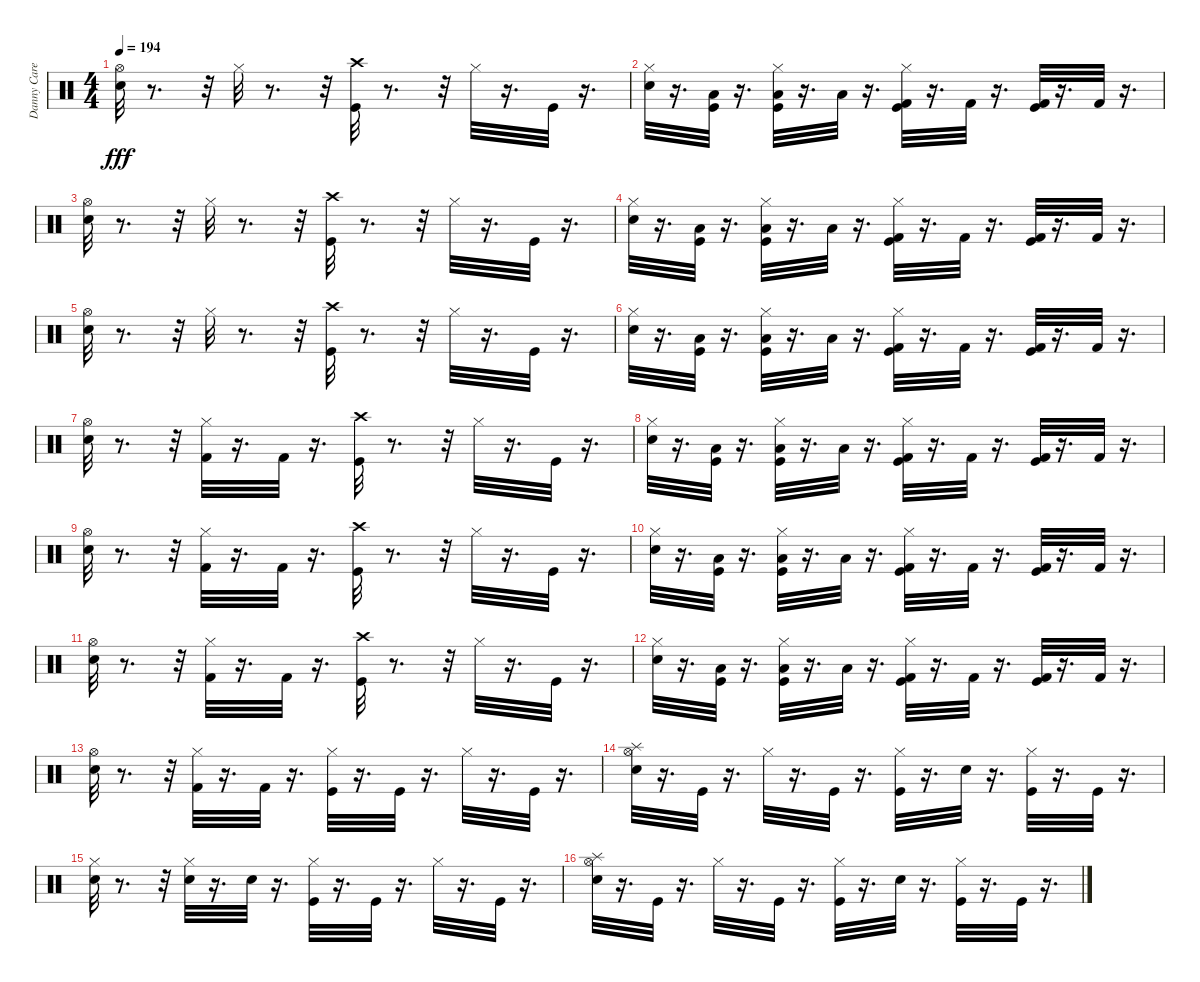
\track ("Danny Carey" "Danny Care") {instrument percussion}
\staff {score}
\articulation defaults
\ts (4 4)
\tempo 194
\clef neutral
\ks c
("Hi-Hat (open)" "Snare (hit) 2").32{dy fff} r.8{d} r.32 "Hi-Hat (closed)".32 r.8{d} r.32 ("Crash high (hit)" "Kick (hit)").32 r.8{d} r.32 "Hi-Hat (closed)".32 r.16{d} "Kick (hit)".32 r.16{d} |
("Hi-Hat (closed)" "Snare (hit) 2").32 r.16{d} ("Low Floor Tom (hit)" "Kick (hit)").32 r.16{d} ("Low Floor Tom (hit)" "Kick (hit)" "Hi-Hat (closed)").32 r.16{d} "Low Floor Tom (hit)".32 r.16{d} ("Kick (hit) 2" "Kick (hit)" "Hi-Hat (closed)").32 r.16{d} "Kick (hit) 2".32 r.16{d} ("Kick (hit) 2" "Kick (hit)").32 r.16{d} "Kick (hit) 2".32 r.16{d} |
("Hi-Hat (open)" "Snare (hit) 2").32 r.8{d} r.32 "Hi-Hat (closed)".32 r.8{d} r.32 ("Crash high (hit)" "Kick (hit)").32 r.8{d} r.32 "Hi-Hat (closed)".32 r.16{d} "Kick (hit)".32 r.16{d} |
("Hi-Hat (closed)" "Snare (hit) 2").32 r.16{d} ("Low Floor Tom (hit)" "Kick (hit)").32 r.16{d} ("Low Floor Tom (hit)" "Kick (hit)" "Hi-Hat (closed)").32 r.16{d} "Low Floor Tom (hit)".32 r.16{d} ("Kick (hit) 2" "Kick (hit)" "Hi-Hat (closed)").32 r.16{d} "Kick (hit) 2".32 r.16{d} ("Kick (hit) 2" "Kick (hit)").32 r.16{d} "Kick (hit) 2".32 r.16{d} |
("Hi-Hat (open)" "Snare (hit) 2").32 r.8{d} r.32 "Hi-Hat (closed)".32 r.8{d} r.32 ("Crash high (hit)" "Kick (hit)").32 r.8{d} r.32 "Hi-Hat (closed)".32 r.16{d} "Kick (hit)".32 r.16{d} |
("Hi-Hat (closed)" "Snare (hit) 2").32 r.16{d} ("Low Floor Tom (hit)" "Kick (hit)").32 r.16{d} ("Low Floor Tom (hit)" "Kick (hit)" "Hi-Hat (closed)").32 r.16{d} "Low Floor Tom (hit)".32 r.16{d} ("Kick (hit) 2" "Kick (hit)" "Hi-Hat (closed)").32 r.16{d} "Kick (hit) 2".32 r.16{d} ("Kick (hit) 2" "Kick (hit)").32 r.16{d} "Kick (hit) 2".32 r.16{d} |
("Hi-Hat (open)" "Snare (hit) 2").32 r.8{d} r.32 ("Kick (hit) 2" "Hi-Hat (closed)").32 r.16{d} "Kick (hit) 2".32 r.16{d} ("Crash high (hit)" "Kick (hit)").32 r.8{d} r.32 "Hi-Hat (closed)".32 r.16{d} "Kick (hit)".32 r.16{d} |
("Hi-Hat (closed)" "Snare (hit) 2").32 r.16{d} ("Low Floor Tom (hit)" "Kick (hit)").32 r.16{d} ("Low Floor Tom (hit)" "Kick (hit)" "Hi-Hat (closed)").32 r.16{d} "Low Floor Tom (hit)".32 r.16{d} ("Kick (hit) 2" "Kick (hit)" "Hi-Hat (closed)").32 r.16{d} "Kick (hit) 2".32 r.16{d} ("Kick (hit) 2" "Kick (hit)").32 r.16{d} "Kick (hit) 2".32 r.16{d} |
("Hi-Hat (open)" "Snare (hit) 2").32 r.8{d} r.32 ("Kick (hit) 2" "Hi-Hat (closed)").32 r.16{d} "Kick (hit) 2".32 r.16{d} ("Crash high (hit)" "Kick (hit)").32 r.8{d} r.32 "Hi-Hat (closed)".32 r.16{d} "Kick (hit)".32 r.16{d} |
("Hi-Hat (closed)" "Snare (hit) 2").32 r.16{d} ("Low Floor Tom (hit)" "Kick (hit)").32 r.16{d} ("Low Floor Tom (hit)" "Kick (hit)" "Hi-Hat (closed)").32 r.16{d} "Low Floor Tom (hit)".32 r.16{d} ("Kick (hit) 2" "Kick (hit)" "Hi-Hat (closed)").32 r.16{d} "Kick (hit) 2".32 r.16{d} ("Kick (hit) 2" "Kick (hit)").32 r.16{d} "Kick (hit) 2".32 r.16{d} |
("Hi-Hat (open)" "Snare (hit) 2").32 r.8{d} r.32 ("Kick (hit) 2" "Hi-Hat (closed)").32 r.16{d} "Kick (hit) 2".32 r.16{d} ("Crash high (hit)" "Kick (hit)").32 r.8{d} r.32 "Hi-Hat (closed)".32 r.16{d} "Kick (hit)".32 r.16{d} |
("Hi-Hat (closed)" "Snare (hit) 2").32 r.16{d} ("Low Floor Tom (hit)" "Kick (hit)").32 r.16{d} ("Low Floor Tom (hit)" "Kick (hit)" "Hi-Hat (closed)").32 r.16{d} "Low Floor Tom (hit)".32 r.16{d} ("Kick (hit) 2" "Kick (hit)" "Hi-Hat (closed)").32 r.16{d} "Kick (hit) 2".32 r.16{d} ("Kick (hit) 2" "Kick (hit)").32 r.16{d} "Kick (hit) 2".32 r.16{d} |
("Hi-Hat (open)" "Snare (hit) 2").32 r.8{d} r.32 ("Kick (hit) 2" "Hi-Hat (closed)").32 r.16{d} "Kick (hit) 2".32 r.16{d} ("Hi-Hat (closed)" "Kick (hit)").32 r.16{d} "Kick (hit)".32 r.16{d} "Hi-Hat (closed)".32 r.16{d} "Kick (hit)".32 r.16{d} |
("Splash (hit)" "Hi-Hat (open)" "Snare (hit) 2").32 r.16{d} "Kick (hit)".32 r.16{d} "Hi-Hat (closed)".32 r.16{d} "Kick (hit)".32 r.16{d} ("Kick (hit)" "Hi-Hat (closed)").32 r.16{d} "Snare (hit) 2".32 r.16{d} ("Kick (hit)" "Hi-Hat (closed)").32 r.16{d} "Kick (hit)".32 r.16{d} |
("Hi-Hat (closed)" "Snare (hit) 2").32 r.8{d} r.32 ("Snare (hit) 2" "Hi-Hat (closed)").32 r.16{d} "Snare (hit) 2".32 r.16{d} ("Hi-Hat (closed)" "Kick (hit)").32 r.16{d} "Kick (hit)".32 r.16{d} "Hi-Hat (closed)".32 r.16{d} "Kick (hit)".32 r.16{d} |
("Splash (hit)" "Hi-Hat (open)" "Snare (hit) 2").32 r.16{d} "Kick (hit)".32 r.16{d} "Hi-Hat (closed)".32 r.16{d} "Kick (hit)".32 r.16{d} ("Kick (hit)" "Hi-Hat (closed)").32 r.16{d} "Snare (hit) 2".32 r.16{d} ("Kick (hit)" "Hi-Hat (closed)").32 r.16{d} "Kick (hit)".32 r.16{d}
